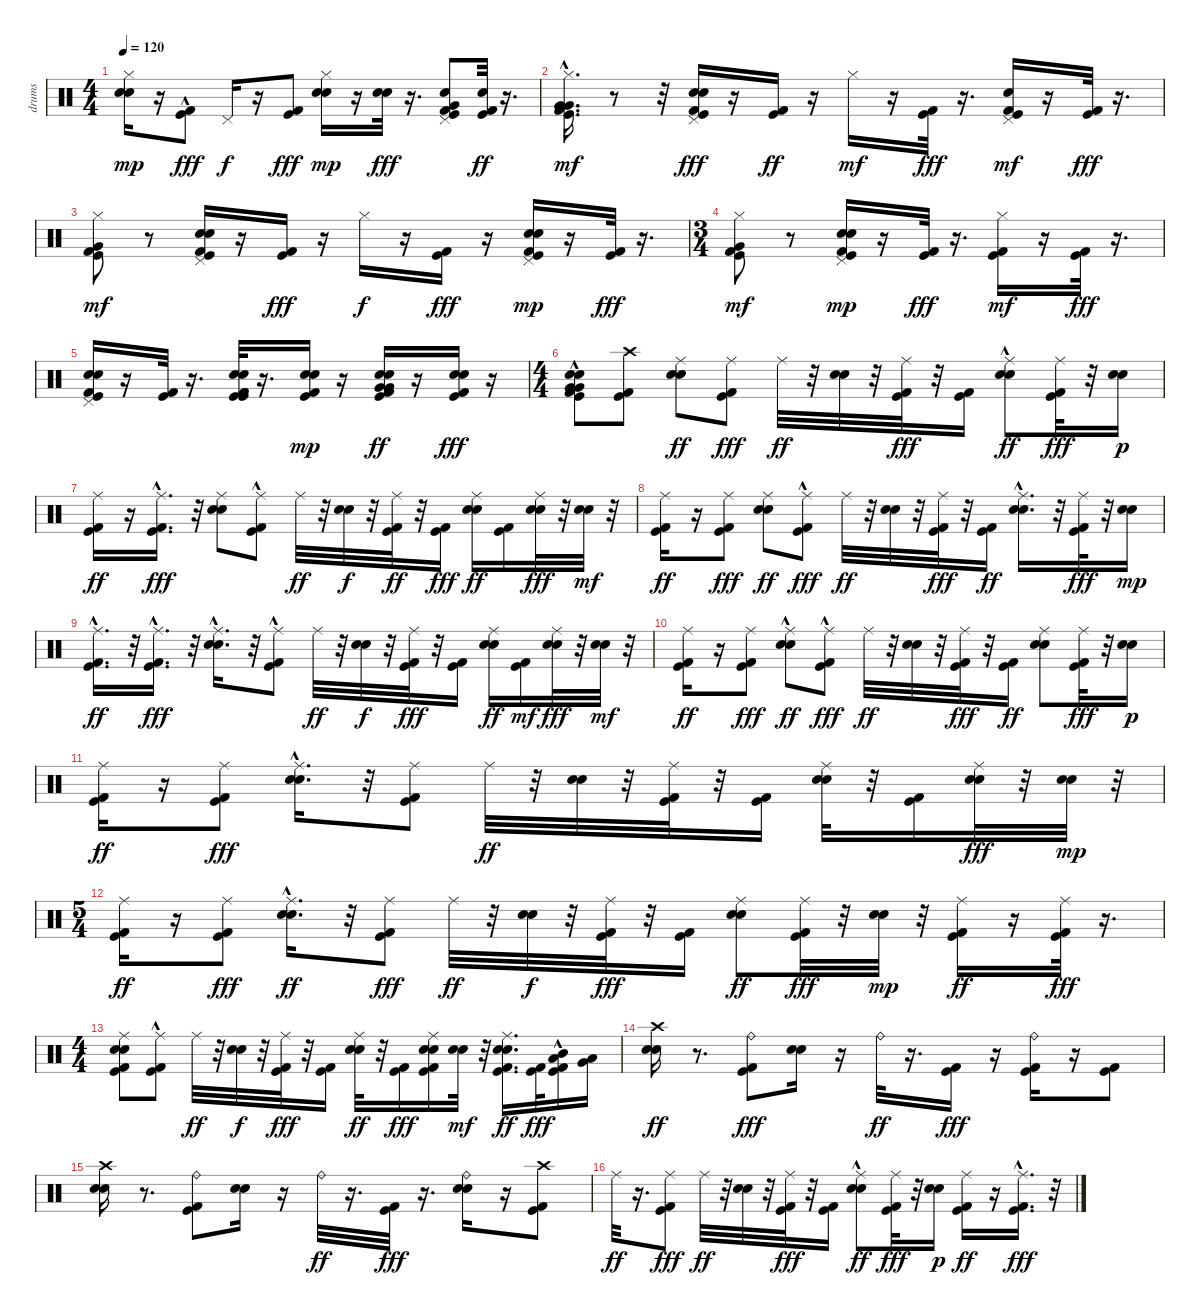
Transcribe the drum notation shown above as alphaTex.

\track ("drums" "drums") {instrument percussion}
\staff {score}
\articulation defaults
\ts (4 4)
\tempo 120
\clef neutral
\ks c
("Snare (hit) 2" "Electric Snare (hit)" "Hi-Hat (closed)").16{dy mp} r.16 ("Kick (hit) 2"{hac} "Kick (hit)").8{dy fff} "Pedal Hi-Hat (hit)".16{dy f} r.16 ("Kick (hit)" "Kick (hit) 2").8{dy fff} ("Snare (hit) 2" "Electric Snare (hit)" "Hi-Hat (closed)").16{dy mp} r.16 ("Snare (hit) 2" "Electric Snare (hit)").32{dy fff} r.16{d} ("Kick (hit)" "Kick (hit) 2" "Snare (hit) 2" "Very Low Tom (hit)" "Pedal Hi-Hat (hit)").8 ("Kick (hit) 2" "Kick (hit)" "Snare (hit) 2").32{dy ff} r.16{d} |
("Very Low Tom (hit)" "Very Low Tom (hit)" "Kick (hit) 2"{hac} "Kick (hit)"{hac} "Hi-Hat (closed)").16{d dy mf} r.8 r.32 ("Electric Snare (hit)" "Snare (hit) 2" "Kick (hit) 2" "Kick (hit)" "Pedal Hi-Hat (hit)").16{dy fff} r.16 ("Kick (hit)" "Kick (hit) 2").16{dy ff} r.16 "Hi-Hat (closed)".16{dy mf} r.16 ("Kick (hit) 2" "Kick (hit)").32{dy fff} r.16{d} ("Snare (hit) 2" "Kick (hit)" "Kick (hit) 2" "Pedal Hi-Hat (hit)").16{dy mf} r.16 ("Kick (hit)" "Kick (hit) 2").32{dy fff} r.16{d} |
("Very Low Tom (hit)" "Kick (hit)" "Kick (hit) 2" "Hi-Hat (closed)").8{dy mf} r.8 ("Electric Snare (hit)" "Snare (hit) 2" "Kick (hit)" "Kick (hit) 2" "Pedal Hi-Hat (hit)").16 r.16 ("Kick (hit)" "Kick (hit) 2").16{dy fff} r.16 "Hi-Hat (closed)".16{dy f} r.16 ("Kick (hit) 2" "Kick (hit)").16{dy fff} r.16 ("Snare (hit) 2" "Electric Snare (hit)" "Kick (hit) 2" "Kick (hit)" "Pedal Hi-Hat (hit)").16{dy mp} r.16 ("Kick (hit)" "Kick (hit) 2").32{dy fff} r.16{d} |
\ts (3 4)
("Kick (hit) 2" "Kick (hit)" "Very Low Tom (hit)" "Hi-Hat (closed)").8{dy mf} r.8 ("Snare (hit) 2" "Electric Snare (hit)" "Kick (hit) 2" "Kick (hit)" "Pedal Hi-Hat (hit)").16{dy mp} r.16 ("Kick (hit)" "Kick (hit) 2").32{dy fff} r.16{d} ("Kick (hit)" "Kick (hit) 2" "Hi-Hat (closed)").16{dy mf} r.16 ("Kick (hit)" "Kick (hit) 2").32{dy fff} r.16{d} |
("Pedal Hi-Hat (hit)" "Electric Snare (hit)" "Snare (hit) 2" "Kick (hit) 2" "Kick (hit)").16 r.16 ("Kick (hit) 2" "Kick (hit)").32 r.16{d} ("Electric Snare (hit)" "Kick (hit) 2" "Snare (hit) 2" "Kick (hit)" "Kick (hit) 2" "Kick (hit)").32 r.16{d} ("Electric Snare (hit)" "Snare (hit) 2" "Kick (hit)" "Kick (hit) 2").16{dy mp} r.16 ("Very Low Tom (hit)" "Electric Snare (hit)" "Snare (hit) 2" "Very Low Tom (hit)" "Kick (hit)" "Kick (hit) 2").16{dy ff} r.16 ("Snare (hit) 2" "Electric Snare (hit)" "Kick (hit) 2" "Kick (hit)").16{dy fff} r.16 |
\ts (4 4)
("Very Low Tom (hit)"{hac} "Kick (hit) 2"{hac} "Kick (hit)"{hac} "Snare (hit) 2"{hac} "Electric Snare (hit)" "Very Low Tom (hit)"{hac}).8 ("Kick (hit) 2" "Kick (hit)" "Crash high (hit)").8 ("Snare (hit) 2" "Electric Snare (hit)" "Ride (middle)").8{dy ff} ("Kick (hit) 2" "Kick (hit)" "Ride (middle)").8{dy fff} "Ride (middle)".32{dy ff} r.32 ("Snare (hit) 2" "Electric Snare (hit)").32 r.32 ("Kick (hit) 2" "Kick (hit)" "Ride (middle)").32{dy fff} r.32 ("Kick (hit) 2" "Kick (hit)").16 ("Electric Snare (hit)" "Snare (hit) 2"{hac} "Ride (middle)").8{dy ff} ("Kick (hit) 2" "Kick (hit)" "Ride (middle)").32{dy fff} r.32 ("Snare (hit) 2" "Electric Snare (hit)").16{dy p} |
("Kick (hit) 2" "Kick (hit)" "Ride (middle)").16{dy ff} r.16 ("Kick (hit) 2"{hac} "Kick (hit)"{hac} "Ride (middle)").16{d dy fff} r.32 ("Snare (hit) 2" "Electric Snare (hit)" "Ride (middle)").8 ("Kick (hit) 2"{hac} "Kick (hit)"{hac} "Ride (middle)").8 "Ride (middle)".32{dy ff} r.32 ("Snare (hit) 2" "Electric Snare (hit)").32{dy f} r.32 ("Kick (hit)" "Kick (hit) 2" "Ride (middle)").32{dy ff} r.32 ("Kick (hit) 2" "Kick (hit)").16{dy fff} ("Electric Snare (hit)" "Snare (hit) 2" "Ride (middle)").16{dy ff} ("Kick (hit) 2" "Kick (hit)").16 ("Snare (hit) 2" "Electric Snare (hit)" "Ride (middle)").32{dy fff} r.32 ("Snare (hit) 2" "Electric Snare (hit)").32{dy mf} r.32 |
("Kick (hit) 2" "Kick (hit)" "Ride (middle)").16{dy ff} r.16 ("Kick (hit) 2" "Kick (hit)" "Ride (middle)").8{dy fff} ("Snare (hit) 2" "Electric Snare (hit)" "Ride (middle)").8{dy ff} ("Kick (hit)"{hac} "Kick (hit) 2"{hac} "Ride (middle)").8{dy fff} "Ride (middle)".32{dy ff} r.32 ("Snare (hit) 2" "Electric Snare (hit)").32 r.32 ("Kick (hit) 2" "Kick (hit)" "Ride (middle)").32{dy fff} r.32 ("Kick (hit) 2" "Kick (hit)").16{dy ff} ("Snare (hit) 2"{hac} "Electric Snare (hit)"{hac} "Ride (middle)").16{d} r.32 ("Kick (hit) 2" "Kick (hit)" "Ride (middle)").32{dy fff} r.32 ("Snare (hit) 2" "Electric Snare (hit)").16{dy mp} |
("Kick (hit) 2"{hac} "Kick (hit)"{hac} "Ride (middle)").16{d dy ff} r.32 ("Kick (hit) 2"{hac} "Kick (hit)"{hac} "Ride (middle)").16{d dy fff} r.32 ("Snare (hit) 2"{hac} "Electric Snare (hit)"{hac} "Ride (middle)").16{d} r.32 ("Kick (hit)"{hac} "Kick (hit) 2"{hac} "Ride (middle)").8 "Ride (middle)".32{dy ff} r.32 ("Snare (hit) 2" "Electric Snare (hit)").32{dy f} r.32 ("Kick (hit)" "Kick (hit) 2" "Ride (middle)").32{dy fff} r.32 ("Kick (hit) 2" "Kick (hit)").16 ("Electric Snare (hit)" "Snare (hit) 2" "Ride (middle)").16{dy ff} ("Kick (hit) 2" "Kick (hit)").16{dy mf} ("Snare (hit) 2" "Electric Snare (hit)" "Ride (middle)").32{dy fff} r.32 ("Snare (hit) 2" "Electric Snare (hit)").32{dy mf} r.32 |
("Kick (hit) 2" "Kick (hit)" "Ride (middle)").16{dy ff} r.16 ("Kick (hit) 2" "Kick (hit)" "Ride (middle)").8{dy fff} ("Electric Snare (hit)" "Snare (hit) 2"{hac} "Ride (middle)").8{dy ff} ("Kick (hit) 2"{hac} "Kick (hit)"{hac} "Ride (middle)").8{dy fff} "Ride (middle)".32{dy ff} r.32 ("Snare (hit) 2" "Electric Snare (hit)").32 r.32 ("Kick (hit) 2" "Kick (hit)" "Ride (middle)").32{dy fff} r.32 ("Kick (hit) 2" "Kick (hit)").16{dy ff} ("Snare (hit) 2" "Electric Snare (hit)" "Ride (middle)").8 ("Kick (hit) 2" "Kick (hit)" "Ride (middle)").32{dy fff} r.32 ("Electric Snare (hit)" "Snare (hit) 2").16{dy p} |
("Kick (hit) 2" "Kick (hit)" "Ride (middle)").16{dy ff} r.16 ("Kick (hit) 2" "Kick (hit)" "Ride (middle)").8{dy fff} ("Snare (hit) 2"{hac} "Electric Snare (hit)"{hac} "Ride (middle)").16{d} r.32 ("Kick (hit) 2" "Kick (hit)" "Ride (middle)").8 "Ride (middle)".32{dy ff} r.32 ("Snare (hit) 2" "Electric Snare (hit)").32 r.32 ("Kick (hit) 2" "Kick (hit)" "Ride (middle)").32 r.32 ("Kick (hit) 2" "Kick (hit)").16 ("Electric Snare (hit)" "Snare (hit) 2" "Ride (middle)").32 r.32 ("Kick (hit) 2" "Kick (hit)").16 ("Snare (hit) 2" "Electric Snare (hit)" "Ride (middle)").32{dy fff} r.32 ("Snare (hit) 2" "Electric Snare (hit)").32{dy mp} r.32 |
\ts (5 4)
("Kick (hit) 2" "Kick (hit)" "Ride (middle)").16{dy ff} r.16 ("Kick (hit) 2" "Kick (hit)" "Ride (middle)").8{dy fff} ("Snare (hit) 2"{hac} "Electric Snare (hit)"{hac} "Ride (middle)").16{d dy ff} r.32 ("Kick (hit)" "Kick (hit) 2" "Ride (middle)").8{dy fff} "Ride (middle)".32{dy ff} r.32 ("Snare (hit) 2" "Electric Snare (hit)").32{dy f} r.32 ("Kick (hit) 2" "Kick (hit)" "Ride (middle)").32{dy fff} r.32 ("Kick (hit) 2" "Kick (hit)").16 ("Snare (hit) 2" "Electric Snare (hit)" "Ride (middle)").8{dy ff} ("Kick (hit) 2" "Kick (hit)" "Ride (middle)").32{dy fff} r.32 ("Snare (hit) 2" "Electric Snare (hit)").32{dy mp} r.32 ("Kick (hit) 2" "Kick (hit)" "Ride (middle)").16{dy ff} r.16 ("Kick (hit)" "Kick (hit) 2" "Ride (middle)").32{dy fff} r.16{d} |
\ts (4 4)
("Kick (hit) 2" "Kick (hit)" "Snare (hit) 2" "Electric Snare (hit)" "Ride (middle)").8 ("Kick (hit) 2"{hac} "Kick (hit)"{hac} "Ride (middle)").8 "Ride (middle)".32{dy ff} r.32 ("Snare (hit) 2" "Electric Snare (hit)").32{dy f} r.32 ("Kick (hit) 2" "Kick (hit)" "Ride (middle)").32{dy fff} r.32 ("Kick (hit)" "Kick (hit) 2").16 ("Snare (hit) 2" "Electric Snare (hit)" "Ride (middle)").32{dy ff} r.32 ("Kick (hit) 2" "Kick (hit)").16{dy fff} ("Kick (hit)" "Kick (hit) 2" "Electric Snare (hit)" "Snare (hit) 2" "Ride (middle)").16 ("Snare (hit) 2" "Electric Snare (hit)").32{dy mf} r.32 ("Electric Snare (hit)" "Snare (hit) 2" "Kick (hit)" "Kick (hit) 2" "Ride (middle)").16{d dy ff} ("Kick (hit)" "Kick (hit) 2").32{dy fff} ("Mid Tom (hit)" "Low Tom (hit)" "Kick (hit) 2"{hac} "Kick (hit)").16 ("Low Floor Tom (hit)" "Very Low Tom (hit)").16 |
("Electric Snare (hit)" "Crash high (hit)" "Snare (hit) 2").16{dy ff} r.8{d} ("Ride (bell)" "Kick (hit) 2" "Kick (hit)").8{dy fff} ("Electric Snare (hit)" "Snare (hit) 2").16 r.16 "Ride (bell)".32{dy ff} r.16{d} ("Kick (hit) 2" "Kick (hit)").16{dy fff} r.16 ("Ride (bell)" "Kick (hit) 2" "Kick (hit)").16 r.16 ("Kick (hit) 2" "Kick (hit)").8 |
("Crash high (hit)" "Electric Snare (hit)" "Snare (hit) 2").16 r.8{d} ("Ride (bell)" "Kick (hit) 2" "Kick (hit)").8 ("Electric Snare (hit)" "Snare (hit) 2").16 r.16 "Ride (bell)".32{dy ff} r.16{d} ("Kick (hit)" "Kick (hit) 2").32{dy fff} r.16{d} ("Ride (bell)" "Snare (hit) 2" "Electric Snare (hit)").16 r.16 ("Kick (hit) 2" "Kick (hit)" "Crash high (hit)").8 |
"Ride (middle)".32{dy ff} r.16{d} ("Kick (hit) 2" "Kick (hit)" "Ride (middle)").8{dy fff} "Ride (middle)".32{dy ff} r.32 ("Snare (hit) 2" "Electric Snare (hit)").32 r.32 ("Kick (hit) 2" "Kick (hit)" "Ride (middle)").32{dy fff} r.32 ("Kick (hit) 2" "Kick (hit)").16 ("Electric Snare (hit)" "Snare (hit) 2"{hac} "Ride (middle)").8{dy ff} ("Kick (hit) 2" "Kick (hit)" "Ride (middle)").32{dy fff} r.32 ("Snare (hit) 2" "Electric Snare (hit)").16{dy p} ("Kick (hit) 2" "Kick (hit)" "Ride (middle)").16{dy ff} r.16 ("Kick (hit) 2"{hac} "Kick (hit)"{hac} "Ride (middle)").16{d dy fff} r.32
